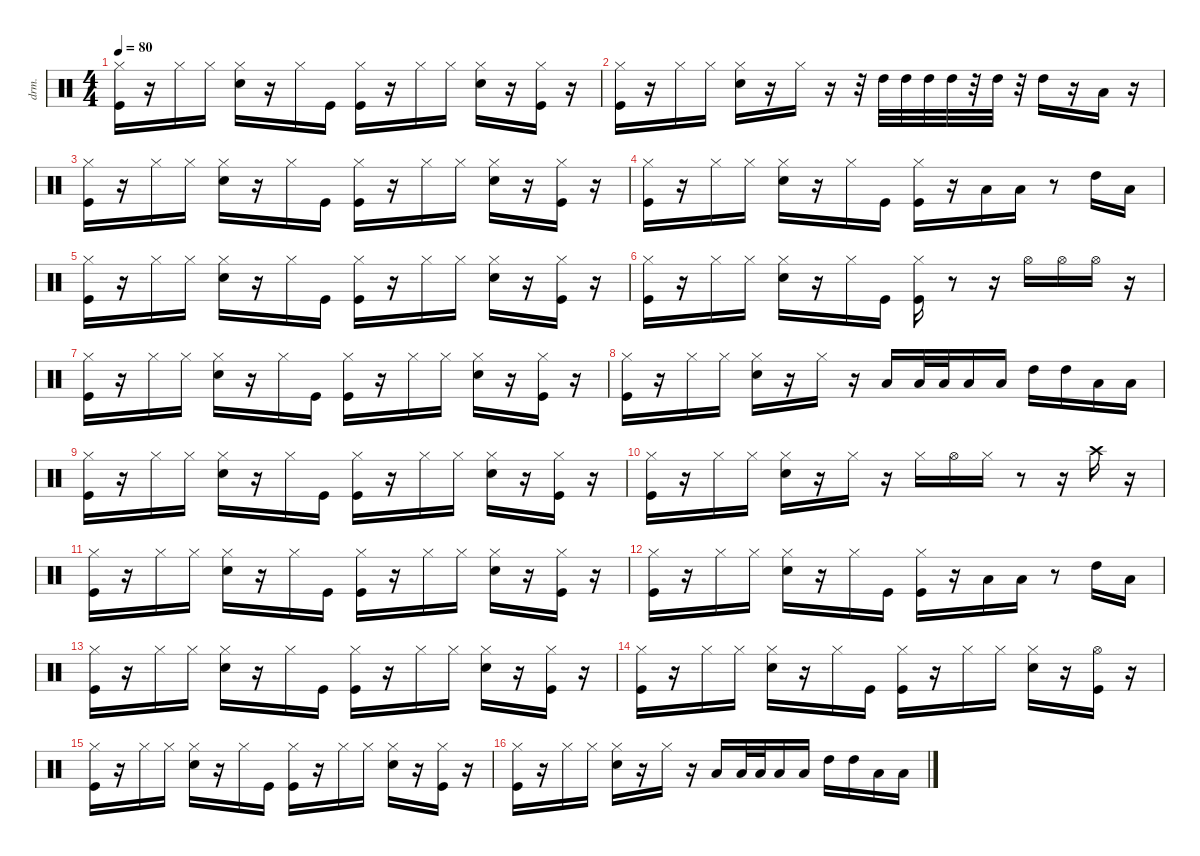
\defaultSystemsLayout 4
\hideDynamics
\bracketExtendMode nobrackets
\track ("Percussions" "drm.") {instrument percussion}
\staff {score}
\articulation defaults
\ts (4 4)
\tempo 80
\clef neutral
\ks c
("Kick (hit)" "Hi-Hat (closed)").16{dy f beam Down} r.16{beam Down} "Hi-Hat (closed)".16{beam Down} "Hi-Hat (closed)".16{beam Down} ("Snare (hit) 2" "Hi-Hat (closed)").16{beam Down} r.16{beam Down} "Hi-Hat (closed)".16{beam Down} "Kick (hit)".16{beam Down} ("Kick (hit)" "Hi-Hat (closed)").16{beam Down} r.16{beam Down} "Hi-Hat (closed)".16{beam Down} "Hi-Hat (closed)".16{beam Down} ("Snare (hit) 2" "Hi-Hat (closed)").16{beam Down} r.16{beam Down} ("Kick (hit)" "Hi-Hat (closed)").16{beam Down} r.16{beam Down} |
("Kick (hit)" "Hi-Hat (closed)").16{beam Down} r.16{beam Down} "Hi-Hat (closed)".16{beam Down} "Hi-Hat (closed)".16{beam Down} ("Snare (hit) 2" "Hi-Hat (closed)").16{beam Down} r.16{beam Down} "Hi-Hat (closed)".16{beam Down} r.16{beam Down} r.32{beam Down} "High Tom (hit)".32{beam Down} "High Tom (hit)".32{beam Down} "High Tom (hit)".32{beam Down} "High Tom (hit)".32{beam Down} r.32{beam Down} "High Tom (hit)".32{beam Down} r.32{beam Down} "High Tom (hit)".16{beam Down} r.16{beam Down} "Low Floor Tom (hit)".16{beam Down} r.16{beam Down} |
("Kick (hit)" "Hi-Hat (closed)").16{beam Down} r.16{beam Down} "Hi-Hat (closed)".16{beam Down} "Hi-Hat (closed)".16{beam Down} ("Snare (hit) 2" "Hi-Hat (closed)").16{beam Down} r.16{beam Down} "Hi-Hat (closed)".16{beam Down} "Kick (hit)".16{beam Down} ("Kick (hit)" "Hi-Hat (closed)").16{beam Down} r.16{beam Down} "Hi-Hat (closed)".16{beam Down} "Hi-Hat (closed)".16{beam Down} ("Snare (hit) 2" "Hi-Hat (closed)").16{beam Down} r.16{beam Down} ("Kick (hit)" "Hi-Hat (closed)").16{beam Down} r.16{beam Down} |
("Kick (hit)" "Hi-Hat (closed)").16{beam Down} r.16{beam Down} "Hi-Hat (closed)".16{beam Down} "Hi-Hat (closed)".16{beam Down} ("Snare (hit) 2" "Hi-Hat (closed)").16{beam Down} r.16{beam Down} "Hi-Hat (closed)".16{beam Down} "Kick (hit)".16{beam Down} ("Kick (hit)" "Hi-Hat (closed)").16{beam Down} r.16{beam Down} "Low Floor Tom (hit)".16{beam Down} "Low Floor Tom (hit)".16{beam Down} r.8{beam Down} "High Tom (hit)".16{beam Down} "Low Floor Tom (hit)".16{beam Down} |
("Kick (hit)" "Hi-Hat (closed)").16{beam Down} r.16{beam Down} "Hi-Hat (closed)".16{beam Down} "Hi-Hat (closed)".16{beam Down} ("Snare (hit) 2" "Hi-Hat (closed)").16{beam Down} r.16{beam Down} "Hi-Hat (closed)".16{beam Down} "Kick (hit)".16{beam Down} ("Kick (hit)" "Hi-Hat (closed)").16{beam Down} r.16{beam Down} "Hi-Hat (closed)".16{beam Down} "Hi-Hat (closed)".16{beam Down} ("Snare (hit) 2" "Hi-Hat (closed)").16{beam Down} r.16{beam Down} ("Kick (hit)" "Hi-Hat (closed)").16{beam Down} r.16{beam Down} |
("Kick (hit)" "Hi-Hat (closed)").16{beam Down} r.16{beam Down} "Hi-Hat (closed)".16{beam Down} "Hi-Hat (closed)".16{beam Down} ("Snare (hit) 2" "Hi-Hat (closed)").16{beam Down} r.16{beam Down} "Hi-Hat (closed)".16{beam Down} "Kick (hit)".16{beam Down} ("Kick (hit)" "Hi-Hat (closed)").16{beam Down} r.8{beam Down} r.16{beam Down} "Hi-Hat (open)".16{beam Down} "Hi-Hat (open)".16{beam Down} "Hi-Hat (open)".16{beam Down} r.16{beam Down} |
("Kick (hit)" "Hi-Hat (closed)").16{beam Down} r.16{beam Down} "Hi-Hat (closed)".16{beam Down} "Hi-Hat (closed)".16{beam Down} ("Snare (hit) 2" "Hi-Hat (closed)").16{beam Down} r.16{beam Down} "Hi-Hat (closed)".16{beam Down} "Kick (hit)".16{beam Down} ("Kick (hit)" "Hi-Hat (closed)").16{beam Down} r.16{beam Down} "Hi-Hat (closed)".16{beam Down} "Hi-Hat (closed)".16{beam Down} ("Snare (hit) 2" "Hi-Hat (closed)").16{beam Down} r.16{beam Down} ("Kick (hit)" "Hi-Hat (closed)").16{beam Down} r.16{beam Down} |
("Kick (hit)" "Hi-Hat (closed)").16{beam Down} r.16{beam Down} "Hi-Hat (closed)".16{beam Down} "Hi-Hat (closed)".16{beam Down} ("Snare (hit) 2" "Hi-Hat (closed)").16{beam Down} r.16{beam Down} "Hi-Hat (closed)".16{beam Down} r.16{beam Down} "Low Floor Tom (hit)".16{beam Up} "Low Floor Tom (hit)".32{beam Up} "Low Floor Tom (hit)".32{beam Up} "Low Floor Tom (hit)".16{beam Up} "Low Floor Tom (hit)".16{beam Up} "High Tom (hit)".16{beam Down} "High Tom (hit)".16{beam Down} "Low Floor Tom (hit)".16{beam Down} "Low Floor Tom (hit)".16{beam Down} |
("Kick (hit)" "Hi-Hat (closed)").16{beam Down} r.16{beam Down} "Hi-Hat (closed)".16{beam Down} "Hi-Hat (closed)".16{beam Down} ("Snare (hit) 2" "Hi-Hat (closed)").16{beam Down} r.16{beam Down} "Hi-Hat (closed)".16{beam Down} "Kick (hit)".16{beam Down} ("Kick (hit)" "Hi-Hat (closed)").16{beam Down} r.16{beam Down} "Hi-Hat (closed)".16{beam Down} "Hi-Hat (closed)".16{beam Down} ("Snare (hit) 2" "Hi-Hat (closed)").16{beam Down} r.16{beam Down} ("Kick (hit)" "Hi-Hat (closed)").16{beam Down} r.16{beam Down} |
("Kick (hit)" "Hi-Hat (closed)").16{beam Down} r.16{beam Down} "Hi-Hat (closed)".16{beam Down} "Hi-Hat (closed)".16{beam Down} ("Snare (hit) 2" "Hi-Hat (closed)").16{beam Down} r.16{beam Down} "Hi-Hat (closed)".16{beam Down} r.16{beam Down} "Hi-Hat (closed)".16{beam Down} "Hi-Hat (open)".16{beam Down} "Hi-Hat (closed)".16{beam Down} r.8{beam Down} r.16{beam Down} "Crash high (hit)".16{beam Down} r.16{beam Down} |
("Kick (hit)" "Hi-Hat (closed)").16{beam Down} r.16{beam Down} "Hi-Hat (closed)".16{beam Down} "Hi-Hat (closed)".16{beam Down} ("Snare (hit) 2" "Hi-Hat (closed)").16{beam Down} r.16{beam Down} "Hi-Hat (closed)".16{beam Down} "Kick (hit)".16{beam Down} ("Kick (hit)" "Hi-Hat (closed)").16{beam Down} r.16{beam Down} "Hi-Hat (closed)".16{beam Down} "Hi-Hat (closed)".16{beam Down} ("Snare (hit) 2" "Hi-Hat (closed)").16{beam Down} r.16{beam Down} ("Kick (hit)" "Hi-Hat (closed)").16{beam Down} r.16{beam Down} |
("Kick (hit)" "Hi-Hat (closed)").16{beam Down} r.16{beam Down} "Hi-Hat (closed)".16{beam Down} "Hi-Hat (closed)".16{beam Down} ("Snare (hit) 2" "Hi-Hat (closed)").16{beam Down} r.16{beam Down} "Hi-Hat (closed)".16{beam Down} "Kick (hit)".16{beam Down} ("Kick (hit)" "Hi-Hat (closed)").16{beam Down} r.16{beam Down} "Low Floor Tom (hit)".16{beam Down} "Low Floor Tom (hit)".16{beam Down} r.8{beam Down} "High Tom (hit)".16{beam Down} "Low Floor Tom (hit)".16{beam Down} |
("Kick (hit)" "Hi-Hat (closed)").16{beam Down} r.16{beam Down} "Hi-Hat (closed)".16{beam Down} "Hi-Hat (closed)".16{beam Down} ("Snare (hit) 2" "Hi-Hat (closed)").16{beam Down} r.16{beam Down} "Hi-Hat (closed)".16{beam Down} "Kick (hit)".16{beam Down} ("Kick (hit)" "Hi-Hat (closed)").16{beam Down} r.16{beam Down} "Hi-Hat (closed)".16{beam Down} "Hi-Hat (closed)".16{beam Down} ("Snare (hit) 2" "Hi-Hat (closed)").16{beam Down} r.16{beam Down} ("Kick (hit)" "Hi-Hat (closed)").16{beam Down} r.16{beam Down} |
("Kick (hit)" "Hi-Hat (closed)").16{beam Down} r.16{beam Down} "Hi-Hat (closed)".16{beam Down} "Hi-Hat (closed)".16{beam Down} ("Snare (hit) 2" "Hi-Hat (closed)").16{beam Down} r.16{beam Down} "Hi-Hat (closed)".16{beam Down} "Kick (hit)".16{beam Down} ("Kick (hit)" "Hi-Hat (closed)").16{beam Down} r.16{beam Down} "Hi-Hat (closed)".16{beam Down} "Hi-Hat (closed)".16{beam Down} ("Snare (hit) 2" "Hi-Hat (closed)").16{beam Down} r.16{beam Down} ("Kick (hit)" "Hi-Hat (open)").16{beam Down} r.16{beam Down} |
("Kick (hit)" "Hi-Hat (closed)").16{beam Down} r.16{beam Down} "Hi-Hat (closed)".16{beam Down} "Hi-Hat (closed)".16{beam Down} ("Snare (hit) 2" "Hi-Hat (closed)").16{beam Down} r.16{beam Down} "Hi-Hat (closed)".16{beam Down} "Kick (hit)".16{beam Down} ("Kick (hit)" "Hi-Hat (closed)").16{beam Down} r.16{beam Down} "Hi-Hat (closed)".16{beam Down} "Hi-Hat (closed)".16{beam Down} ("Snare (hit) 2" "Hi-Hat (closed)").16{beam Down} r.16{beam Down} ("Kick (hit)" "Hi-Hat (closed)").16{beam Down} r.16{beam Down} |
("Kick (hit)" "Hi-Hat (closed)").16{beam Down} r.16{beam Down} "Hi-Hat (closed)".16{beam Down} "Hi-Hat (closed)".16{beam Down} ("Snare (hit) 2" "Hi-Hat (closed)").16{beam Down} r.16{beam Down} "Hi-Hat (closed)".16{beam Down} r.16{beam Down} "Low Floor Tom (hit)".16{beam Up} "Low Floor Tom (hit)".32{beam Up} "Low Floor Tom (hit)".32{beam Up} "Low Floor Tom (hit)".16{beam Up} "Low Floor Tom (hit)".16{beam Up} "High Tom (hit)".16{beam Down} "High Tom (hit)".16{beam Down} "Low Floor Tom (hit)".16{beam Down} "Low Floor Tom (hit)".16{beam Down}
